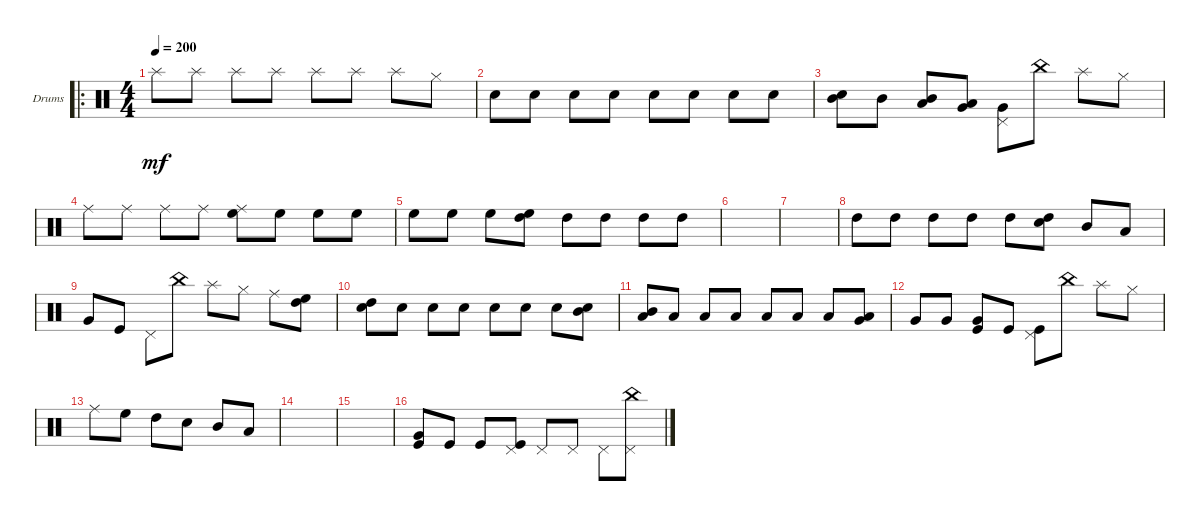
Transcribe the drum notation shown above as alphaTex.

\defaultSystemsLayout 4
\bracketExtendMode groupsimilarinstruments
\firstSystemTrackNameOrientation horizontal
\otherSystemsTrackNameOrientation horizontal
\track ("Drumkit" "Drums") {instrument percussion}
\staff {score}
\articulation defaults
\ro
\ts (4 4)
\tempo 200
\clef neutral
\scale
0.474178
\ks c "Splash (hit)".8{dy mf} "Splash (hit)".8 "Splash (hit)".8 "Splash (hit)".8 "Splash (hit)".8 "Splash (hit)".8 "Splash (hit)".8 "Hi-Hat (closed)".8
|
\scale
0.262911 "Snare (hit) 2".8 "Snare (hit) 2".8 "Snare (hit) 2".8 "Snare (hit) 2".8 "Snare (hit) 2".8 "Snare (hit) 2".8 "Snare (hit) 2".8 "Snare (hit) 2".8 |
\scale
0.262911 ("Snare (hit) 2" "Mid Tom (hit)").8 "Mid Tom (hit)".8 ("Mid Tom (hit)" "Low Tom (hit)").8 ("Low Tom (hit)" "Very Low Tom (hit)").8 ("Very Low Tom (hit)" "Pedal Hi-Hat (hit)").8 "China (hit)".8 "Splash (hit)".8 "Hi-Hat (closed)".8 |
\scale
0.333333 "Ride (middle)".8 "Ride (middle)".8 "Ride (middle)".8 "Ride (middle)".8 ("Ride (middle)" "High Floor Tom (hit)").8 "High Floor Tom (hit)".8 "High Floor Tom (hit)".8 "High Floor Tom (hit)".8 |
\scale
0.333333 "High Floor Tom (hit)".8 "High Floor Tom (hit)".8 "High Floor Tom (hit)".8 ("High Floor Tom (hit)" "High Tom (hit)").8 "High Tom (hit)".8 "High Tom (hit)".8 "High Tom (hit)".8 "High Tom (hit)".8 |
\scale
0.333333 |
\scale
0.333333 |
\scale
0.333333 "High Tom (hit)".8 "High Tom (hit)".8 "High Tom (hit)".8 "High Tom (hit)".8 "High Tom (hit)".8 ("High Tom (hit)" "Snare (hit) 2").8 "Mid Tom (hit)".8 "Low Tom (hit)".8 |
\scale
0.333333 "Very Low Tom (hit)".8 "Kick (hit)".8 "Pedal Hi-Hat (hit)".8 "China (hit)".8 "Splash (hit)".8 "Hi-Hat (closed)".8 "Ride (middle)".8 ("High Floor Tom (hit)" "High Tom (hit)").8 |
\scale
0.333333 ("High Tom (hit)" "Snare (hit) 2").8 "Snare (hit) 2".8 "Snare (hit) 2".8 "Snare (hit) 2".8 "Snare (hit) 2".8 "Snare (hit) 2".8 "Snare (hit) 2".8 ("Snare (hit) 2" "Mid Tom (hit)").8 |
\scale
0.333333 ("Mid Tom (hit)" "Low Tom (hit)").8 "Low Tom (hit)".8 "Low Tom (hit)".8 "Low Tom (hit)".8 "Low Tom (hit)".8 "Low Tom (hit)".8 "Low Tom (hit)".8 ("Low Tom (hit)" "Very Low Tom (hit)").8 |
\scale
0.333333 "Very Low Tom (hit)".8 "Very Low Tom (hit)".8 ("Very Low Tom (hit)" "Kick (hit)").8 "Kick (hit)".8 ("Kick (hit)" "Pedal Hi-Hat (hit)").8 "China (hit)".8 "Splash (hit)".8 "Hi-Hat (closed)".8 |
\scale
0.333333 "Ride (middle)".8 "High Floor Tom (hit)".8 "High Tom (hit)".8 "Snare (hit) 2".8 "Mid Tom (hit)".8 "Low Tom (hit)".8 |
\scale
0.333333 |
\scale
0.333333 |
\scale
0.333333 ("Very Low Tom (hit)" "Kick (hit)").8 "Kick (hit)".8 "Kick (hit)".8 ("Kick (hit)" "Pedal Hi-Hat (hit)").8 "Pedal Hi-Hat (hit)".8 "Pedal Hi-Hat (hit)".8 "Pedal Hi-Hat (hit)".8 ("Pedal Hi-Hat (hit)" "China (hit)").8
